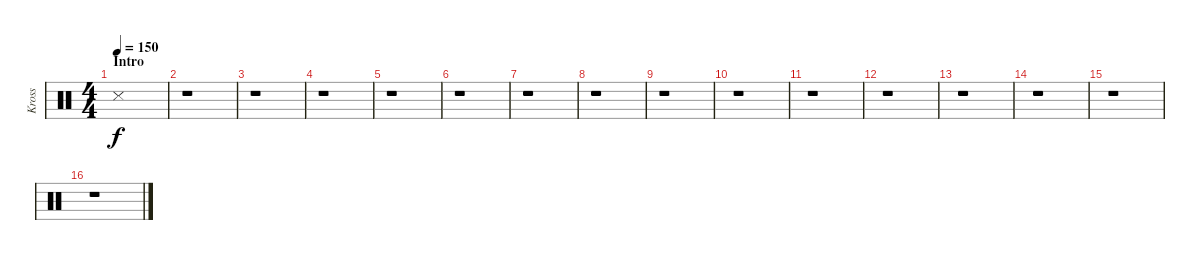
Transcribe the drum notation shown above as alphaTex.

\track ("Kross" "Kross") {instrument percussion}
\staff {score}
\articulation defaults
\ts (4 4)
\section ("" "Intro")
\tempo 150
\clef neutral
\ks c "Snare (side stick) 3".1{dy f}
|
r.1 |
r.1 |
r.1 |
r.1 |
r.1 |
r.1 |
r.1 |
r.1 |
r.1 |
r.1 |
r.1 |
r.1 |
r.1 |
r.1 |
r.1
